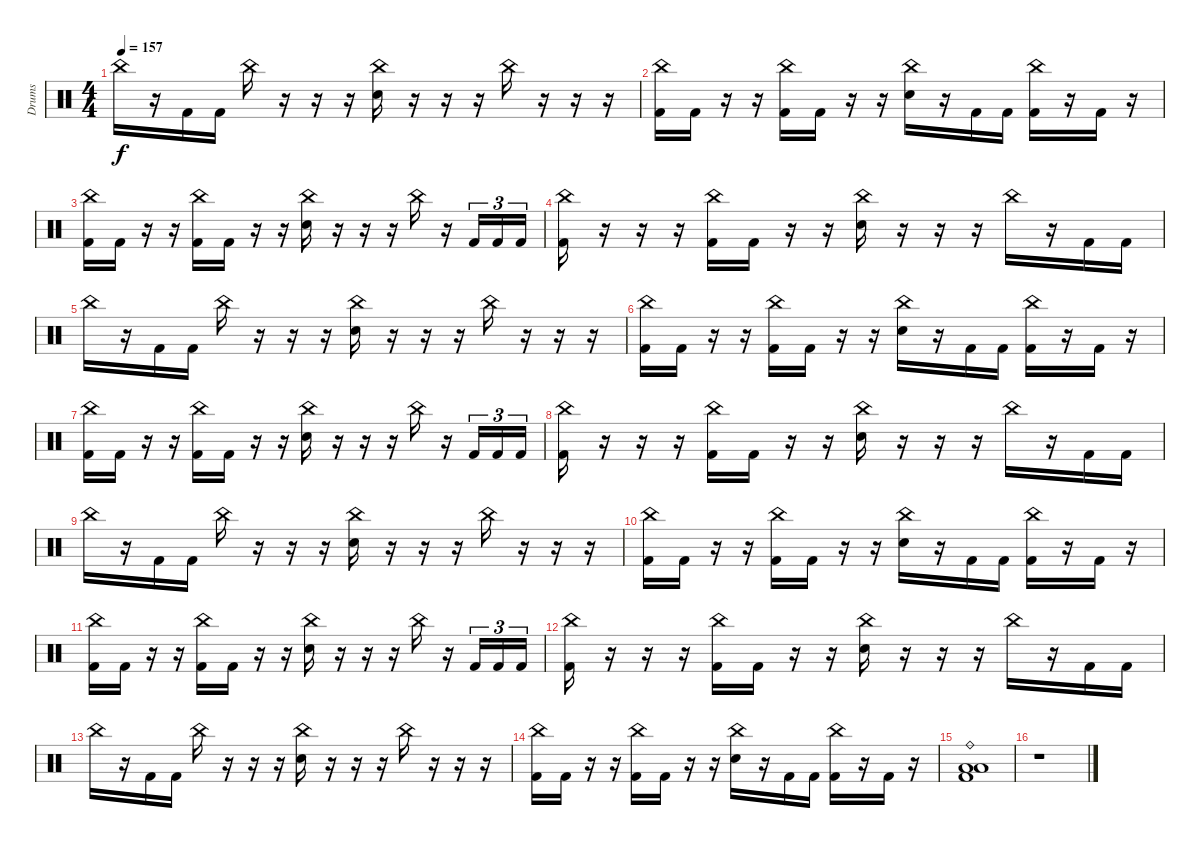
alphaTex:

\track ("Drums" "Drums") {instrument percussion}
\staff {score}
\articulation defaults
\ts (4 4)
\tempo 157
\clef neutral
\ks c "China (hit)".16{dy f}
r.16 "Kick (hit) 2".16 "Kick (hit) 2".16 "China (hit)".16 r.16 r.16 r.16 ("China (hit)" "Electric Snare (hit)").16 r.16 r.16 r.16 "China (hit)".16 r.16 r.16 r.16 |
("China (hit)" "Kick (hit) 2").16 "Kick (hit) 2".16 r.16 r.16 ("China (hit)" "Kick (hit) 2").16 "Kick (hit) 2".16 r.16 r.16 ("China (hit)" "Electric Snare (hit)").16 r.16 "Kick (hit) 2".16 "Kick (hit) 2".16 ("China (hit)" "Kick (hit) 2").16 r.16 "Kick (hit) 2".16 r.16 |
("China (hit)" "Kick (hit) 2").16 "Kick (hit) 2".16 r.16 r.16 ("China (hit)" "Kick (hit) 2").16 "Kick (hit) 2".16 r.16 r.16 ("China (hit)" "Electric Snare (hit)").16 r.16 r.16 r.16 "China (hit)".16 r.16 "Kick (hit) 2".16{tu (3 2)} "Kick (hit) 2".16{tu (3 2)} "Kick (hit) 2".16{tu (3 2)} |
("China (hit)" "Kick (hit) 2").16 r.16 r.16 r.16 ("China (hit)" "Kick (hit) 2").16 "Kick (hit) 2".16 r.16 r.16 ("China (hit)" "Electric Snare (hit)").16 r.16 r.16 r.16 "China (hit)".16 r.16 "Kick (hit) 2".16 "Kick (hit) 2".16 |
"China (hit)".16 r.16 "Kick (hit) 2".16 "Kick (hit) 2".16 "China (hit)".16 r.16 r.16 r.16 ("China (hit)" "Electric Snare (hit)").16 r.16 r.16 r.16 "China (hit)".16 r.16 r.16 r.16 |
("China (hit)" "Kick (hit) 2").16 "Kick (hit) 2".16 r.16 r.16 ("China (hit)" "Kick (hit) 2").16 "Kick (hit) 2".16 r.16 r.16 ("China (hit)" "Electric Snare (hit)").16 r.16 "Kick (hit) 2".16 "Kick (hit) 2".16 ("China (hit)" "Kick (hit) 2").16 r.16 "Kick (hit) 2".16 r.16 |
("China (hit)" "Kick (hit) 2").16 "Kick (hit) 2".16 r.16 r.16 ("China (hit)" "Kick (hit) 2").16 "Kick (hit) 2".16 r.16 r.16 ("China (hit)" "Electric Snare (hit)").16 r.16 r.16 r.16 "China (hit)".16 r.16 "Kick (hit) 2".16{tu (3 2)} "Kick (hit) 2".16{tu (3 2)} "Kick (hit) 2".16{tu (3 2)} |
("China (hit)" "Kick (hit) 2").16 r.16 r.16 r.16 ("China (hit)" "Kick (hit) 2").16 "Kick (hit) 2".16 r.16 r.16 ("China (hit)" "Electric Snare (hit)").16 r.16 r.16 r.16 "China (hit)".16 r.16 "Kick (hit) 2".16 "Kick (hit) 2".16 |
"China (hit)".16 r.16 "Kick (hit) 2".16 "Kick (hit) 2".16 "China (hit)".16 r.16 r.16 r.16 ("China (hit)" "Electric Snare (hit)").16 r.16 r.16 r.16 "China (hit)".16 r.16 r.16 r.16 |
("China (hit)" "Kick (hit) 2").16 "Kick (hit) 2".16 r.16 r.16 ("China (hit)" "Kick (hit) 2").16 "Kick (hit) 2".16 r.16 r.16 ("China (hit)" "Electric Snare (hit)").16 r.16 "Kick (hit) 2".16 "Kick (hit) 2".16 ("China (hit)" "Kick (hit) 2").16 r.16 "Kick (hit) 2".16 r.16 |
("China (hit)" "Kick (hit) 2").16 "Kick (hit) 2".16 r.16 r.16 ("China (hit)" "Kick (hit) 2").16 "Kick (hit) 2".16 r.16 r.16 ("China (hit)" "Electric Snare (hit)").16 r.16 r.16 r.16 "China (hit)".16 r.16 "Kick (hit) 2".16{tu (3 2)} "Kick (hit) 2".16{tu (3 2)} "Kick (hit) 2".16{tu (3 2)} |
("China (hit)" "Kick (hit) 2").16 r.16 r.16 r.16 ("China (hit)" "Kick (hit) 2").16 "Kick (hit) 2".16 r.16 r.16 ("China (hit)" "Electric Snare (hit)").16 r.16 r.16 r.16 "China (hit)".16 r.16 "Kick (hit) 2".16 "Kick (hit) 2".16 |
"China (hit)".16 r.16 "Kick (hit) 2".16 "Kick (hit) 2".16 "China (hit)".16 r.16 r.16 r.16 ("China (hit)" "Electric Snare (hit)").16 r.16 r.16 r.16 "China (hit)".16 r.16 r.16 r.16 |
("China (hit)" "Kick (hit) 2").16 "Kick (hit) 2".16 r.16 r.16 ("China (hit)" "Kick (hit) 2").16 "Kick (hit) 2".16 r.16 r.16 ("China (hit)" "Electric Snare (hit)").16 r.16 "Kick (hit) 2".16 "Kick (hit) 2".16 ("China (hit)" "Kick (hit) 2").16 r.16 "Kick (hit) 2".16 r.16 |
("Ride (bell)" "Low Floor Tom (hit)" "Low Tom (hit)" "Kick (hit) 2").1 |
r.1
